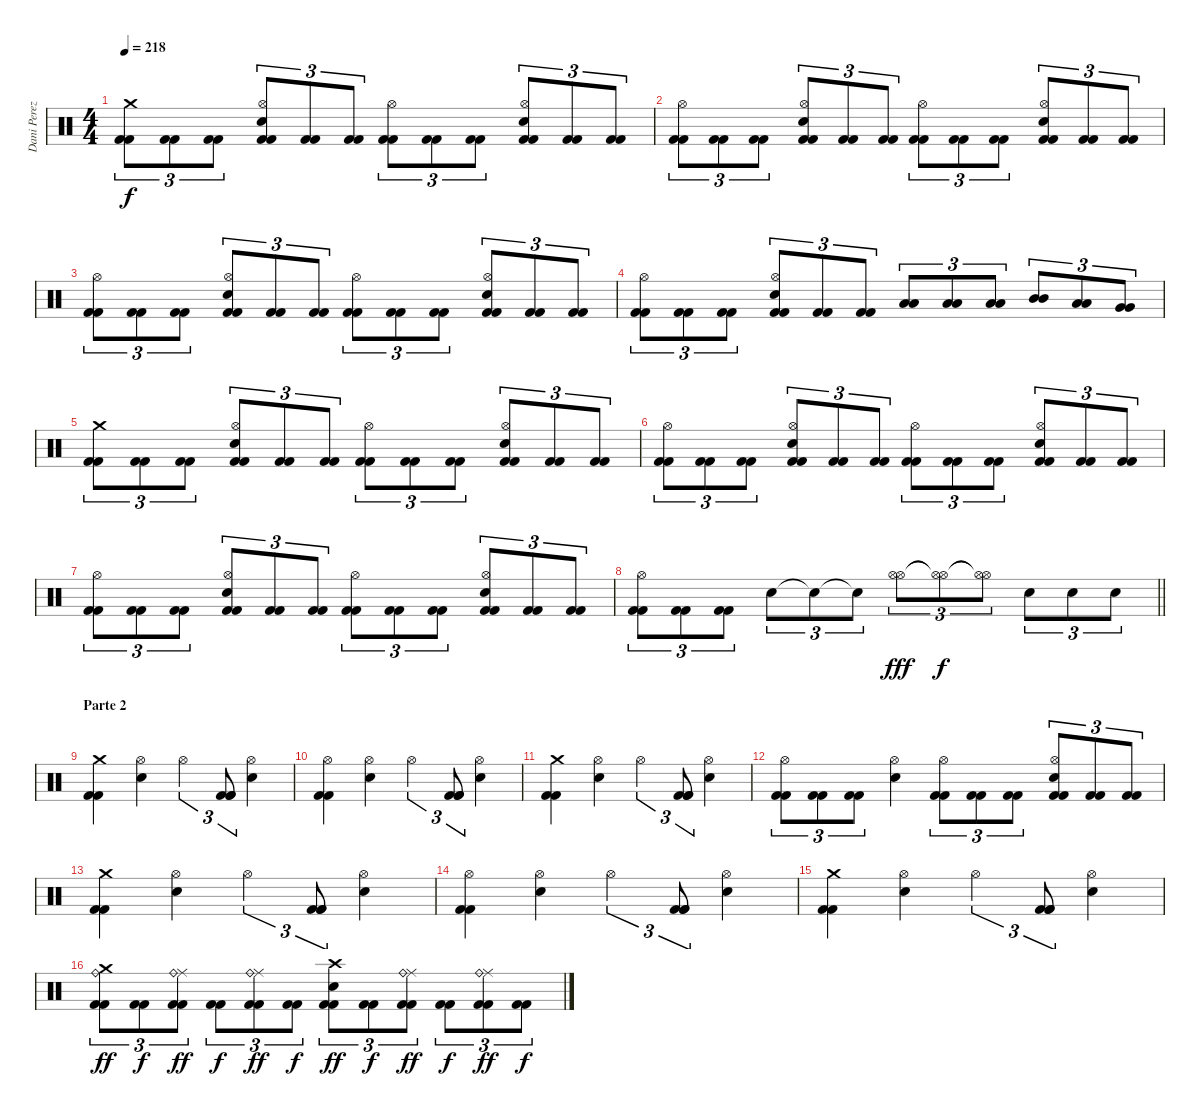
\track ("Dani Perez" "Dani Perez") {instrument percussion}
\staff {score}
\articulation defaults
\ts (4 4)
\tempo 218
\clef neutral
\ks c
("Crash medium (hit)" "Kick (hit) 2" "Kick (hit) 2").8{tu (3 2) dy f} ("Kick (hit) 2" "Kick (hit) 2").8{tu (3 2)} ("Kick (hit) 2" "Kick (hit) 2").8{tu (3 2)} ("Hi-Hat (open)" "Snare (hit) 2" "Kick (hit) 2" "Kick (hit) 2").8{tu (3 2)} ("Kick (hit) 2" "Kick (hit) 2").8{tu (3 2)} ("Kick (hit) 2" "Kick (hit) 2").8{tu (3 2)} ("Hi-Hat (open)" "Kick (hit) 2" "Kick (hit) 2").8{tu (3 2)} ("Kick (hit) 2" "Kick (hit) 2").8{tu (3 2)} ("Kick (hit) 2" "Kick (hit) 2").8{tu (3 2)} ("Hi-Hat (open)" "Snare (hit) 2" "Kick (hit) 2" "Kick (hit) 2").8{tu (3 2)} ("Kick (hit) 2" "Kick (hit) 2").8{tu (3 2)} ("Kick (hit) 2" "Kick (hit) 2").8{tu (3 2)} |
("Hi-Hat (open)" "Kick (hit) 2" "Kick (hit) 2").8{tu (3 2)} ("Kick (hit) 2" "Kick (hit) 2").8{tu (3 2)} ("Kick (hit) 2" "Kick (hit) 2").8{tu (3 2)} ("Hi-Hat (open)" "Snare (hit) 2" "Kick (hit) 2" "Kick (hit) 2").8{tu (3 2)} ("Kick (hit) 2" "Kick (hit) 2").8{tu (3 2)} ("Kick (hit) 2" "Kick (hit) 2").8{tu (3 2)} ("Hi-Hat (open)" "Kick (hit) 2" "Kick (hit) 2").8{tu (3 2)} ("Kick (hit) 2" "Kick (hit) 2").8{tu (3 2)} ("Kick (hit) 2" "Kick (hit) 2").8{tu (3 2)} ("Hi-Hat (open)" "Snare (hit) 2" "Kick (hit) 2" "Kick (hit) 2").8{tu (3 2)} ("Kick (hit) 2" "Kick (hit) 2").8{tu (3 2)} ("Kick (hit) 2" "Kick (hit) 2").8{tu (3 2)} |
("Hi-Hat (open)" "Kick (hit) 2" "Kick (hit) 2").8{tu (3 2)} ("Kick (hit) 2" "Kick (hit) 2").8{tu (3 2)} ("Kick (hit) 2" "Kick (hit) 2").8{tu (3 2)} ("Hi-Hat (open)" "Snare (hit) 2" "Kick (hit) 2" "Kick (hit) 2").8{tu (3 2)} ("Kick (hit) 2" "Kick (hit) 2").8{tu (3 2)} ("Kick (hit) 2" "Kick (hit) 2").8{tu (3 2)} ("Hi-Hat (open)" "Kick (hit) 2" "Kick (hit) 2").8{tu (3 2)} ("Kick (hit) 2" "Kick (hit) 2").8{tu (3 2)} ("Kick (hit) 2" "Kick (hit) 2").8{tu (3 2)} ("Hi-Hat (open)" "Snare (hit) 2" "Kick (hit) 2" "Kick (hit) 2").8{tu (3 2)} ("Kick (hit) 2" "Kick (hit) 2").8{tu (3 2)} ("Kick (hit) 2" "Kick (hit) 2").8{tu (3 2)} |
("Hi-Hat (open)" "Kick (hit) 2" "Kick (hit) 2").8{tu (3 2)} ("Kick (hit) 2" "Kick (hit) 2").8{tu (3 2)} ("Kick (hit) 2" "Kick (hit) 2").8{tu (3 2)} ("Hi-Hat (open)" "Snare (hit) 2" "Kick (hit) 2" "Kick (hit) 2").8{tu (3 2)} ("Kick (hit) 2" "Kick (hit) 2").8{tu (3 2)} ("Kick (hit) 2" "Kick (hit) 2").8{tu (3 2)} ("Low Tom (hit)" "Low Tom (hit)").8{tu (3 2)} ("Low Tom (hit)" "Low Tom (hit)").8{tu (3 2)} ("Low Tom (hit)" "Low Tom (hit)").8{tu (3 2)} ("Mid Tom (hit)" "Mid Tom (hit)").8{tu (3 2)} ("Low Tom (hit)" "Low Tom (hit)").8{tu (3 2)} ("Very Low Tom (hit)" "Very Low Tom (hit)").8{tu (3 2)} |
("Crash medium (hit)" "Kick (hit) 2" "Kick (hit) 2").8{tu (3 2)} ("Kick (hit) 2" "Kick (hit) 2").8{tu (3 2)} ("Kick (hit) 2" "Kick (hit) 2").8{tu (3 2)} ("Hi-Hat (open)" "Snare (hit) 2" "Kick (hit) 2" "Kick (hit) 2").8{tu (3 2)} ("Kick (hit) 2" "Kick (hit) 2").8{tu (3 2)} ("Kick (hit) 2" "Kick (hit) 2").8{tu (3 2)} ("Hi-Hat (open)" "Kick (hit) 2" "Kick (hit) 2").8{tu (3 2)} ("Kick (hit) 2" "Kick (hit) 2").8{tu (3 2)} ("Kick (hit) 2" "Kick (hit) 2").8{tu (3 2)} ("Hi-Hat (open)" "Snare (hit) 2" "Kick (hit) 2" "Kick (hit) 2").8{tu (3 2)} ("Kick (hit) 2" "Kick (hit) 2").8{tu (3 2)} ("Kick (hit) 2" "Kick (hit) 2").8{tu (3 2)} |
("Hi-Hat (open)" "Kick (hit) 2" "Kick (hit) 2").8{tu (3 2)} ("Kick (hit) 2" "Kick (hit) 2").8{tu (3 2)} ("Kick (hit) 2" "Kick (hit) 2").8{tu (3 2)} ("Hi-Hat (open)" "Snare (hit) 2" "Kick (hit) 2" "Kick (hit) 2").8{tu (3 2)} ("Kick (hit) 2" "Kick (hit) 2").8{tu (3 2)} ("Kick (hit) 2" "Kick (hit) 2").8{tu (3 2)} ("Hi-Hat (open)" "Kick (hit) 2" "Kick (hit) 2").8{tu (3 2)} ("Kick (hit) 2" "Kick (hit) 2").8{tu (3 2)} ("Kick (hit) 2" "Kick (hit) 2").8{tu (3 2)} ("Hi-Hat (open)" "Snare (hit) 2" "Kick (hit) 2" "Kick (hit) 2").8{tu (3 2)} ("Kick (hit) 2" "Kick (hit) 2").8{tu (3 2)} ("Kick (hit) 2" "Kick (hit) 2").8{tu (3 2)} |
("Hi-Hat (open)" "Kick (hit) 2" "Kick (hit) 2").8{tu (3 2)} ("Kick (hit) 2" "Kick (hit) 2").8{tu (3 2)} ("Kick (hit) 2" "Kick (hit) 2").8{tu (3 2)} ("Hi-Hat (open)" "Snare (hit) 2" "Kick (hit) 2" "Kick (hit) 2").8{tu (3 2)} ("Kick (hit) 2" "Kick (hit) 2").8{tu (3 2)} ("Kick (hit) 2" "Kick (hit) 2").8{tu (3 2)} ("Hi-Hat (open)" "Kick (hit) 2" "Kick (hit) 2").8{tu (3 2)} ("Kick (hit) 2" "Kick (hit) 2").8{tu (3 2)} ("Kick (hit) 2" "Kick (hit) 2").8{tu (3 2)} ("Hi-Hat (open)" "Snare (hit) 2" "Kick (hit) 2" "Kick (hit) 2").8{tu (3 2)} ("Kick (hit) 2" "Kick (hit) 2").8{tu (3 2)} ("Kick (hit) 2" "Kick (hit) 2").8{tu (3 2)} |
\barLineRight lightlight
("Hi-Hat (open)" "Kick (hit) 2" "Kick (hit) 2").8{tu (3 2)} ("Kick (hit) 2" "Kick (hit) 2").8{tu (3 2)} ("Kick (hit) 2" "Kick (hit) 2").8{tu (3 2)} "Snare (hit) 2".8{tu (3 2)} "Snare (hit) 2"{t}.8{tu (3 2)} "Snare (hit) 2"{t}.8{tu (3 2)} ("Hi-Hat (open)" "Hi-Hat (open)").8{tu (3 2) dy fff} ("Hi-Hat (open)"{t} "Hi-Hat (open)"{t}).8{tu (3 2) dy f} ("Hi-Hat (open)"{t} "Hi-Hat (open)"{t}).8{tu (3 2)} "Snare (hit) 2".8{tu (3 2)} "Snare (hit) 2".8{tu (3 2)} "Snare (hit) 2".8{tu (3 2)} |
\section ("" "Parte 2")
("Crash medium (hit)" "Kick (hit) 2" "Kick (hit) 2").4 ("Hi-Hat (open)" "Snare (hit) 2").4 "Hi-Hat (open)".4{tu (3 2)} ("Kick (hit) 2" "Kick (hit) 2" "Kick (hit) 2").8{tu (3 2)} ("Hi-Hat (open)" "Snare (hit) 2").4 |
("Hi-Hat (open)" "Kick (hit) 2" "Kick (hit) 2").4 ("Hi-Hat (open)" "Snare (hit) 2").4 "Hi-Hat (open)".4{tu (3 2)} ("Kick (hit) 2" "Kick (hit) 2" "Kick (hit) 2").8{tu (3 2)} ("Hi-Hat (open)" "Snare (hit) 2").4 |
("Crash medium (hit)" "Kick (hit) 2" "Kick (hit) 2").4 ("Hi-Hat (open)" "Snare (hit) 2").4 "Hi-Hat (open)".4{tu (3 2)} ("Kick (hit) 2" "Kick (hit) 2" "Kick (hit) 2").8{tu (3 2)} ("Hi-Hat (open)" "Snare (hit) 2").4 |
("Hi-Hat (open)" "Kick (hit) 2" "Kick (hit) 2").8{tu (3 2)} ("Kick (hit) 2" "Kick (hit) 2").8{tu (3 2)} ("Kick (hit) 2" "Kick (hit) 2").8{tu (3 2)} ("Hi-Hat (open)" "Snare (hit) 2").4 ("Hi-Hat (open)" "Kick (hit) 2" "Kick (hit) 2").8{tu (3 2)} ("Kick (hit) 2" "Kick (hit) 2").8{tu (3 2)} ("Kick (hit) 2" "Kick (hit) 2").8{tu (3 2)} ("Hi-Hat (open)" "Snare (hit) 2" "Kick (hit) 2" "Kick (hit) 2").8{tu (3 2)} ("Kick (hit) 2" "Kick (hit) 2").8{tu (3 2)} ("Kick (hit) 2" "Kick (hit) 2").8{tu (3 2)} |
("Crash medium (hit)" "Kick (hit) 2" "Kick (hit) 2").4 ("Hi-Hat (open)" "Snare (hit) 2").4 "Hi-Hat (open)".4{tu (3 2)} ("Kick (hit) 2" "Kick (hit) 2" "Kick (hit) 2").8{tu (3 2)} ("Hi-Hat (open)" "Snare (hit) 2").4 |
("Hi-Hat (open)" "Kick (hit) 2" "Kick (hit) 2").4 ("Hi-Hat (open)" "Snare (hit) 2").4 "Hi-Hat (open)".4{tu (3 2)} ("Kick (hit) 2" "Kick (hit) 2" "Kick (hit) 2").8{tu (3 2)} ("Hi-Hat (open)" "Snare (hit) 2").4 |
("Crash medium (hit)" "Kick (hit) 2" "Kick (hit) 2").4 ("Hi-Hat (open)" "Snare (hit) 2").4 "Hi-Hat (open)".4{tu (3 2)} ("Kick (hit) 2" "Kick (hit) 2" "Kick (hit) 2").8{tu (3 2)} ("Hi-Hat (open)" "Snare (hit) 2").4 |
("Crash medium (hit)" "Ride (bell)" "Kick (hit) 2" "Kick (hit) 2").8{tu (3 2) dy ff} ("Kick (hit) 2" "Kick (hit) 2").8{tu (3 2) dy f} ("Ride (middle)" "Ride (bell)" "Kick (hit) 2" "Kick (hit) 2").8{tu (3 2) dy ff} ("Kick (hit) 2" "Kick (hit) 2").8{tu (3 2) dy f} ("Ride (middle)" "Ride (bell)" "Kick (hit) 2" "Kick (hit) 2").8{tu (3 2) dy ff} ("Kick (hit) 2" "Kick (hit) 2").8{tu (3 2) dy f} ("Snare (hit) 2" "Crash high (hit)" "Kick (hit) 2" "Kick (hit) 2").8{tu (3 2) dy ff} ("Kick (hit) 2" "Kick (hit) 2").8{tu (3 2) dy f} ("Ride (middle)" "Ride (bell)" "Kick (hit) 2" "Kick (hit) 2").8{tu (3 2) dy ff} ("Kick (hit) 2" "Kick (hit) 2").8{tu (3 2) dy f} ("Ride (middle)" "Ride (bell)" "Kick (hit) 2" "Kick (hit) 2").8{tu (3 2) dy ff} ("Kick (hit) 2" "Kick (hit) 2").8{tu (3 2) dy f}
